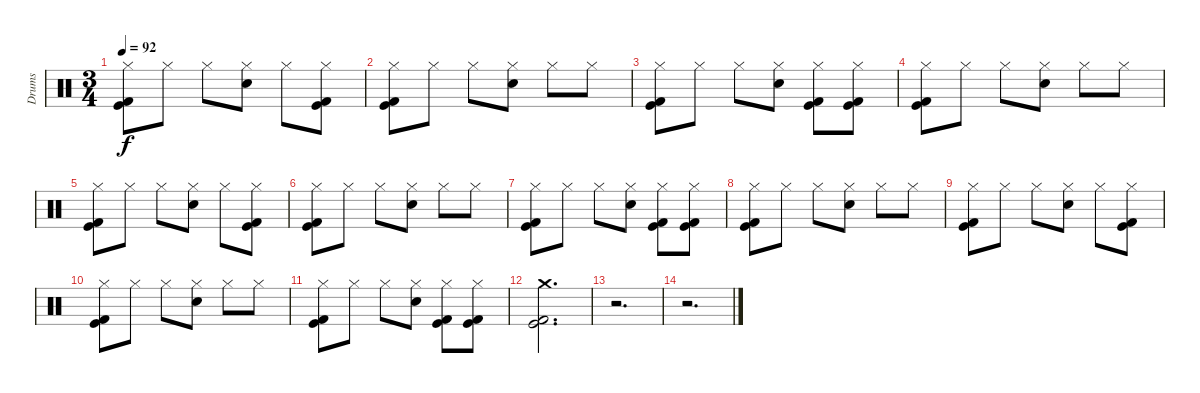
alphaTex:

\track ("Drums" "Drums") {instrument percussion}
\staff {score}
\articulation defaults
\ts (3 4)
\tempo 92
\clef neutral
\ks c
("Hi-Hat (closed)" "Kick (hit)" "Kick (hit) 2").8{dy f} "Hi-Hat (closed)".8 "Hi-Hat (closed)".8 ("Hi-Hat (closed)" "Electric Snare (hit)").8 "Hi-Hat (closed)".8 ("Hi-Hat (closed)" "Kick (hit)" "Kick (hit) 2").8 |
("Hi-Hat (closed)" "Kick (hit)" "Kick (hit) 2").8 "Hi-Hat (closed)".8 "Hi-Hat (closed)".8 ("Hi-Hat (closed)" "Electric Snare (hit)").8 "Hi-Hat (closed)".8 "Hi-Hat (closed)".8 |
("Hi-Hat (closed)" "Kick (hit)" "Kick (hit) 2").8 "Hi-Hat (closed)".8 "Hi-Hat (closed)".8 ("Hi-Hat (closed)" "Electric Snare (hit)").8 ("Hi-Hat (closed)" "Kick (hit)" "Kick (hit) 2").8 ("Hi-Hat (closed)" "Kick (hit)" "Kick (hit) 2").8 |
("Hi-Hat (closed)" "Kick (hit)" "Kick (hit) 2").8 "Hi-Hat (closed)".8 "Hi-Hat (closed)".8 ("Hi-Hat (closed)" "Electric Snare (hit)").8 "Hi-Hat (closed)".8 "Hi-Hat (closed)".8 |
("Hi-Hat (closed)" "Kick (hit)" "Kick (hit) 2").8 "Hi-Hat (closed)".8 "Hi-Hat (closed)".8 ("Hi-Hat (closed)" "Electric Snare (hit)").8 "Hi-Hat (closed)".8 ("Hi-Hat (closed)" "Kick (hit)" "Kick (hit) 2").8 |
("Hi-Hat (closed)" "Kick (hit)" "Kick (hit) 2").8 "Hi-Hat (closed)".8 "Hi-Hat (closed)".8 ("Hi-Hat (closed)" "Electric Snare (hit)").8 "Hi-Hat (closed)".8 "Hi-Hat (closed)".8 |
("Hi-Hat (closed)" "Kick (hit)" "Kick (hit) 2").8 "Hi-Hat (closed)".8 "Hi-Hat (closed)".8 ("Hi-Hat (closed)" "Electric Snare (hit)").8 ("Hi-Hat (closed)" "Kick (hit)" "Kick (hit) 2").8 ("Hi-Hat (closed)" "Kick (hit)" "Kick (hit) 2").8 |
("Hi-Hat (closed)" "Kick (hit)" "Kick (hit) 2").8 "Hi-Hat (closed)".8 "Hi-Hat (closed)".8 ("Hi-Hat (closed)" "Electric Snare (hit)").8 "Hi-Hat (closed)".8 "Hi-Hat (closed)".8 |
("Hi-Hat (closed)" "Kick (hit)" "Kick (hit) 2").8 "Hi-Hat (closed)".8 "Hi-Hat (closed)".8 ("Hi-Hat (closed)" "Electric Snare (hit)").8 "Hi-Hat (closed)".8 ("Hi-Hat (closed)" "Kick (hit)" "Kick (hit) 2").8 |
("Hi-Hat (closed)" "Kick (hit)" "Kick (hit) 2").8 "Hi-Hat (closed)".8 "Hi-Hat (closed)".8 ("Hi-Hat (closed)" "Electric Snare (hit)").8 "Hi-Hat (closed)".8 "Hi-Hat (closed)".8 |
("Hi-Hat (closed)" "Kick (hit)" "Kick (hit) 2").8 "Hi-Hat (closed)".8 "Hi-Hat (closed)".8 ("Hi-Hat (closed)" "Electric Snare (hit)").8 ("Hi-Hat (closed)" "Kick (hit)" "Kick (hit) 2").8 ("Hi-Hat (closed)" "Kick (hit)" "Kick (hit) 2").8 |
("Crash medium (hit)" "Kick (hit)" "Kick (hit) 2").2{d volume 0} |
r.2{d} |
r.2{d}
